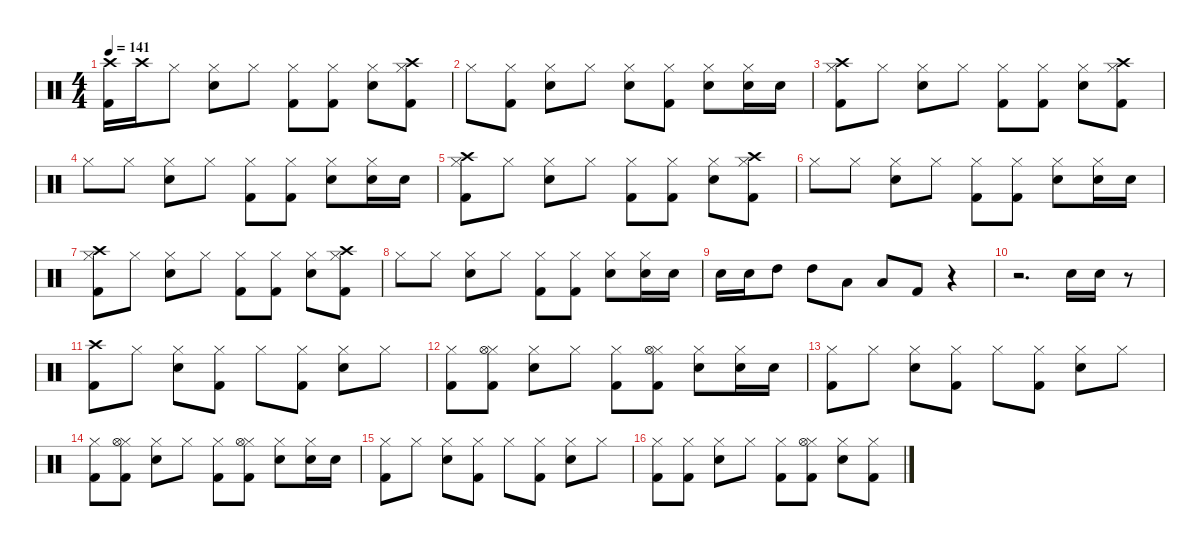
\defaultSystemsLayout 4
\hideDynamics
\bracketExtendMode nobrackets
\singleTrackTrackNamePolicy hidden
\multiTrackTrackNamePolicy hidden
\otherSystemsTrackNameOrientation horizontal
\track ("Drum" "drm.") {instrument percussion}
\staff {score}
\articulation defaults
\ts (4 4)
\tempo 141
\clef neutral
\ks c
("Crash high (hit)" "Kick (hit) 2").16{dy fff beam Down} "Crash high (hit)".16{dy mf beam Down} "Hi-Hat (closed)".8{dy f beam Down} ("Hi-Hat (closed)" "Snare (hit) 2").8{dy fff beam Down} "Hi-Hat (closed)".8{dy f beam Down} ("Hi-Hat (closed)" "Kick (hit) 2").8{dy fff beam Down} ("Hi-Hat (closed)" "Kick (hit) 2").8{beam Down} ("Hi-Hat (closed)" "Snare (hit) 2").8{beam Down} ("Hi-Hat (closed)" "Kick (hit) 2" "Crash high (hit)").8{beam Down} |
"Hi-Hat (closed)".8{dy f beam Down} ("Kick (hit) 2" "Hi-Hat (closed)").8{dy fff beam Down} ("Snare (hit) 2" "Hi-Hat (closed)").8{beam Down} "Hi-Hat (closed)".8{dy f beam Down} ("Snare (hit) 2" "Hi-Hat (closed)").8{dy fff beam Down} ("Kick (hit) 2" "Hi-Hat (closed)").8{dy f beam Down} ("Snare (hit) 2" "Hi-Hat (closed)").8{dy fff beam Down} ("Snare (hit) 2" "Hi-Hat (closed)").16{beam Down} "Snare (hit) 2".16{beam Down} |
("Kick (hit) 2" "Hi-Hat (closed)" "Crash high (hit)").8{beam Down} "Hi-Hat (closed)".8{dy f beam Down} ("Snare (hit) 2" "Hi-Hat (closed)").8{dy fff beam Down} "Hi-Hat (closed)".8{dy f beam Down} ("Kick (hit) 2" "Hi-Hat (closed)").8{dy fff beam Down} ("Kick (hit) 2" "Hi-Hat (closed)").8{beam Down} ("Snare (hit) 2" "Hi-Hat (closed)").8{beam Down} ("Kick (hit) 2" "Hi-Hat (closed)" "Crash high (hit)").8{beam Down} |
"Hi-Hat (closed)".8{beam Down} "Hi-Hat (closed)".8{dy f beam Down} ("Hi-Hat (closed)" "Snare (hit) 2").8{dy fff beam Down} "Hi-Hat (closed)".8{dy f beam Down} ("Hi-Hat (closed)" "Kick (hit) 2").8{dy fff beam Down} ("Hi-Hat (closed)" "Kick (hit) 2").8{dy f beam Down} ("Hi-Hat (closed)" "Snare (hit) 2").8{dy fff beam Down} ("Hi-Hat (closed)" "Snare (hit) 2").16{beam Down} "Snare (hit) 2".16{dy f beam Down} |
("Kick (hit) 2" "Hi-Hat (closed)" "Crash high (hit)").8{dy fff beam Down} "Hi-Hat (closed)".8{dy f beam Down} ("Snare (hit) 2" "Hi-Hat (closed)").8{dy fff beam Down} "Hi-Hat (closed)".8{dy f beam Down} ("Kick (hit) 2" "Hi-Hat (closed)").8{dy fff beam Down} ("Kick (hit) 2" "Hi-Hat (closed)").8{beam Down} ("Snare (hit) 2" "Hi-Hat (closed)").8{beam Down} ("Kick (hit) 2" "Hi-Hat (closed)" "Crash high (hit)").8{beam Down} |
"Hi-Hat (closed)".8{beam Down} "Hi-Hat (closed)".8{dy f beam Down} ("Hi-Hat (closed)" "Snare (hit) 2").8{dy fff beam Down} "Hi-Hat (closed)".8{dy f beam Down} ("Hi-Hat (closed)" "Kick (hit) 2").8{dy fff beam Down} ("Hi-Hat (closed)" "Kick (hit) 2").8{beam Down} ("Hi-Hat (closed)" "Snare (hit) 2").8{beam Down} ("Hi-Hat (closed)" "Snare (hit) 2").16{beam Down} "Snare (hit) 2".16{dy f beam Down} |
("Kick (hit) 2" "Hi-Hat (closed)" "Crash high (hit)").8{dy fff beam Down} "Hi-Hat (closed)".8{dy f beam Down} ("Snare (hit) 2" "Hi-Hat (closed)").8{dy fff beam Down} "Hi-Hat (closed)".8{dy f beam Down} ("Kick (hit) 2" "Hi-Hat (closed)").8{dy fff beam Down} ("Kick (hit) 2" "Hi-Hat (closed)").8{beam Down} ("Snare (hit) 2" "Hi-Hat (closed)").8{beam Down} ("Kick (hit) 2" "Hi-Hat (closed)" "Crash high (hit)").8{beam Down} |
"Hi-Hat (closed)".8{dy f beam Down} "Hi-Hat (closed)".8{beam Down} ("Snare (hit) 2" "Hi-Hat (closed)").8{dy fff beam Down} "Hi-Hat (closed)".8{dy f beam Down} ("Kick (hit) 2" "Hi-Hat (closed)").8{dy fff beam Down} ("Kick (hit) 2" "Hi-Hat (closed)").8{beam Down} ("Snare (hit) 2" "Hi-Hat (closed)").8{beam Down} ("Snare (hit) 2" "Hi-Hat (closed)").16{beam Down} "Snare (hit) 2".16{beam Down} |
"Snare (hit) 2".16{beam Down} "Snare (hit) 2".16{beam Down} "High Tom (hit)".8{beam Down} "High Tom (hit)".8{beam Down} "Low Tom (hit)".8{beam Down} "Low Floor Tom (hit)".8{beam Up} "Kick (hit) 2".8{beam Up} r.4{beam Up} |
r.2{d beam Down} "Snare (hit) 2".16{beam Down} "Snare (hit) 2".16{beam Down} r.8{beam Down} |
("Crash high (hit)" "Kick (hit) 2").8{beam Down} "Hi-Hat (closed)".8{dy f beam Down} ("Hi-Hat (closed)" "Snare (hit) 2").8{dy fff beam Down} ("Hi-Hat (closed)" "Kick (hit) 2").8{dy f beam Down} "Hi-Hat (closed)".8{dy fff beam Down} ("Hi-Hat (closed)" "Kick (hit) 2").8{beam Down} ("Hi-Hat (closed)" "Snare (hit) 2").8{beam Down} "Hi-Hat (closed)".8{dy f beam Down} |
("Hi-Hat (closed)" "Kick (hit) 2").8{dy fff beam Down} ("Hi-Hat (closed)" "Kick (hit) 2" "Hi-Hat (open)").8{beam Down} ("Hi-Hat (closed)" "Snare (hit) 2").8{beam Down} "Hi-Hat (closed)".8{dy f beam Down} ("Hi-Hat (closed)" "Kick (hit) 2").8{dy fff beam Down} ("Hi-Hat (closed)" "Kick (hit) 2" "Hi-Hat (open)").8{beam Down} ("Hi-Hat (closed)" "Snare (hit) 2").8{beam Down} ("Hi-Hat (closed)" "Snare (hit) 2").16{dy f beam Down} "Snare (hit) 2".16{beam Down} |
("Hi-Hat (closed)" "Kick (hit) 2").8{dy fff beam Down} "Hi-Hat (closed)".8{dy f beam Down} ("Hi-Hat (closed)" "Snare (hit) 2").8{dy fff beam Down} ("Hi-Hat (closed)" "Kick (hit) 2").8{dy f beam Down} "Hi-Hat (closed)".8{dy fff beam Down} ("Hi-Hat (closed)" "Kick (hit) 2").8{beam Down} ("Hi-Hat (closed)" "Snare (hit) 2").8{beam Down} "Hi-Hat (closed)".8{dy f beam Down} |
("Hi-Hat (closed)" "Kick (hit) 2").8{dy fff beam Down} ("Hi-Hat (closed)" "Kick (hit) 2" "Hi-Hat (open)").8{beam Down} ("Hi-Hat (closed)" "Snare (hit) 2").8{beam Down} "Hi-Hat (closed)".8{dy f beam Down} ("Hi-Hat (closed)" "Kick (hit) 2").8{dy fff beam Down} ("Hi-Hat (closed)" "Kick (hit) 2" "Hi-Hat (open)").8{beam Down} ("Hi-Hat (closed)" "Snare (hit) 2").8{beam Down} ("Hi-Hat (closed)" "Snare (hit) 2").16{dy f beam Down} "Snare (hit) 2".16{beam Down} |
("Hi-Hat (closed)" "Kick (hit) 2").8{dy fff beam Down} "Hi-Hat (closed)".8{dy f beam Down} ("Hi-Hat (closed)" "Snare (hit) 2").8{dy fff beam Down} ("Hi-Hat (closed)" "Kick (hit) 2").8{dy f beam Down} "Hi-Hat (closed)".8{dy fff beam Down} ("Hi-Hat (closed)" "Kick (hit) 2").8{beam Down} ("Hi-Hat (closed)" "Snare (hit) 2").8{beam Down} "Hi-Hat (closed)".8{dy f beam Down} |
("Kick (hit) 2" "Hi-Hat (closed)").8{dy fff beam Down} ("Kick (hit) 2" "Hi-Hat (closed)").8{beam Down} ("Snare (hit) 2" "Hi-Hat (closed)").8{beam Down} "Hi-Hat (closed)".8{dy f beam Down} ("Kick (hit) 2" "Hi-Hat (closed)").8{dy fff beam Down} ("Kick (hit) 2" "Hi-Hat (closed)" "Hi-Hat (open)").8{beam Down} ("Snare (hit) 2" "Hi-Hat (closed)").8{beam Down} ("Kick (hit) 2" "Hi-Hat (closed)").8{dy f beam Down}
